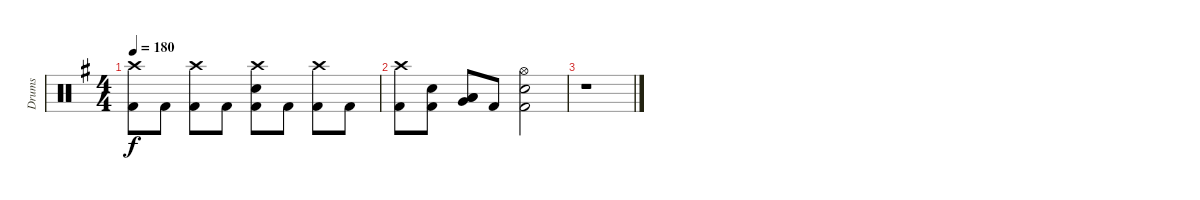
\track ("Drums" "Drums") {instrument percussion}
\staff {score}
\articulation defaults
\ts (4 4)
\tempo 180
\clef neutral
\ks g
("Crash high (hit)" "Kick (hit) 2").8{dy f} "Kick (hit) 2".8 ("Crash high (hit)" "Kick (hit) 2").8 "Kick (hit) 2".8 ("Crash high (hit)" "Electric Snare (hit)" "Kick (hit) 2").8 "Kick (hit) 2".8 ("Crash high (hit)" "Kick (hit) 2").8 "Kick (hit) 2".8 |
("Crash high (hit)" "Kick (hit) 2").8 ("Electric Snare (hit)" "Kick (hit) 2").8 ("Very Low Tom (hit)" "Low Tom (hit)" "Low Tom (hit)").8 "Kick (hit) 2".8 ("Hi-Hat (open)" "Electric Snare (hit)" "Kick (hit) 2").2 |
r.1
